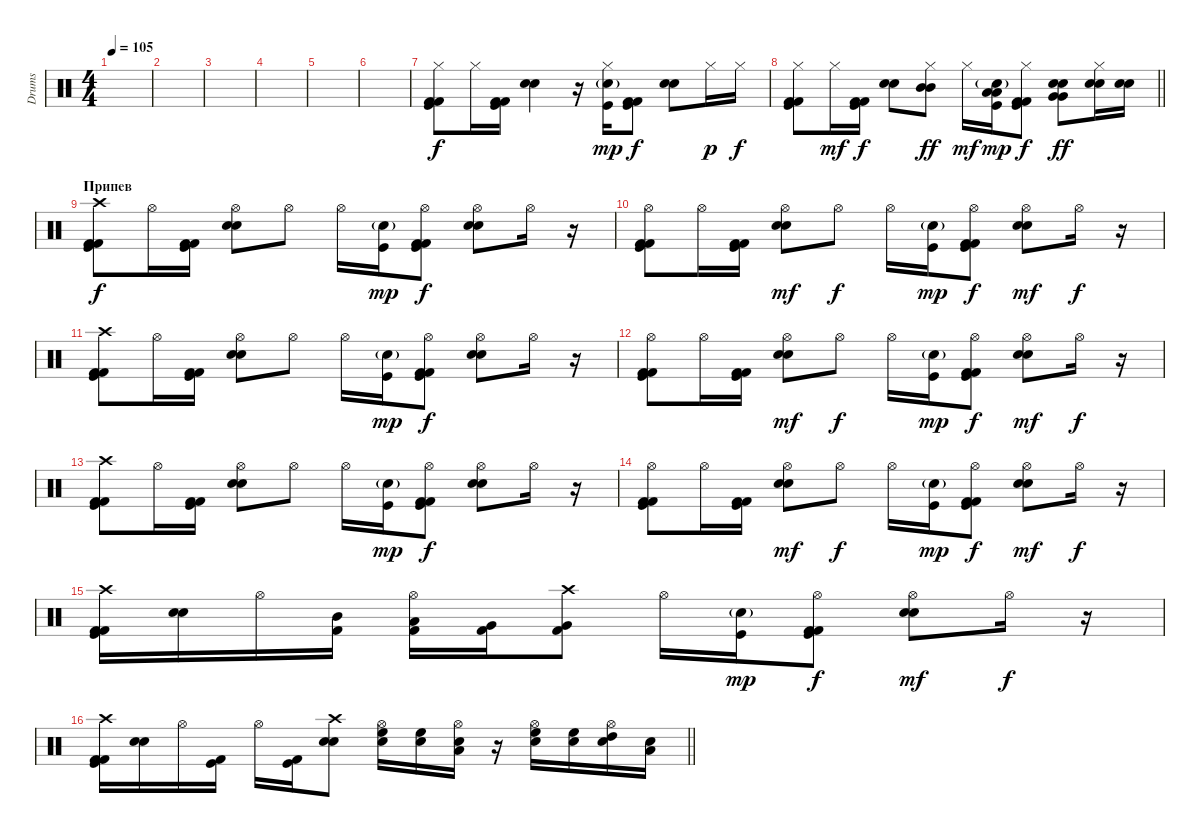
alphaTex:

\track ("Drums" "Drums") {instrument percussion}
\staff {score}
\articulation defaults
\ts (4 4)
\tempo 105
\clef neutral
\ks c
|
|
|
|
|
|
("Hi-Hat (closed)" "Kick (hit) 2" "Kick (hit) 2" "Kick (hit)").8{volume 11} "Hi-Hat (closed)".16 ("Kick (hit) 2" "Kick (hit) 2" "Kick (hit)").16 ("Electric Snare (hit)" "Snare (hit) 2").4 r.16 ("Hi-Hat (closed)" "Snare (hit) 2"{g} "Kick (hit)").16{dy mp} ("Kick (hit) 2" "Kick (hit) 2" "Kick (hit)").8{dy f} ("Electric Snare (hit)" "Snare (hit) 2").8 "Hi-Hat (closed)".16{dy p} "Hi-Hat (closed)".16{dy f} |
\barLineRight lightlight
("Hi-Hat (closed)" "Kick (hit) 2" "Kick (hit) 2" "Kick (hit)").8 "Hi-Hat (closed)".16{dy mf} ("Kick (hit) 2" "Kick (hit) 2" "Kick (hit)").16{dy f} ("Electric Snare (hit)" "Snare (hit) 2").8 ("Hi-Hat (closed)" "Mid Tom (hit)" "Mid Tom (hit)").8{dy ff} "Hi-Hat (closed)".16{dy mf} ("Low Tom (hit)" "Low Tom (hit)" "Snare (hit) 2"{g} "Kick (hit)").16{dy mp} ("Hi-Hat (closed)" "Kick (hit) 2" "Kick (hit) 2" "Kick (hit)").8{dy f} ("Very Low Tom (hit)" "Electric Snare (hit)" "Electric Snare (hit)" "Very Low Tom (hit)").8{dy ff} ("Hi-Hat (closed)" "Electric Snare (hit)" "Electric Snare (hit)").16 ("Electric Snare (hit)" "Electric Snare (hit)").16 |
\section ("" "Припев")
("Crash high (hit)" "Kick (hit) 2" "Kick (hit) 2" "Kick (hit)").8{dy f volume 13} "Hi-Hat (open)".16 ("Kick (hit) 2" "Kick (hit) 2" "Kick (hit)").16 ("Hi-Hat (open)" "Electric Snare (hit)" "Snare (hit) 2").8 "Hi-Hat (open)".8 "Hi-Hat (open)".16 ("Snare (hit) 2"{g} "Kick (hit)").16{dy mp} ("Hi-Hat (open)" "Kick (hit) 2" "Kick (hit) 2" "Kick (hit)").8{dy f} ("Hi-Hat (open)" "Electric Snare (hit)" "Snare (hit) 2").8 "Hi-Hat (open)".16 r.16 |
("Hi-Hat (open)" "Kick (hit) 2" "Kick (hit) 2" "Kick (hit)").8 "Hi-Hat (open)".16 ("Kick (hit) 2" "Kick (hit) 2" "Kick (hit)").16 ("Hi-Hat (open)" "Electric Snare (hit)" "Snare (hit) 2").8{dy mf} "Hi-Hat (open)".8{dy f} "Hi-Hat (open)".16 ("Snare (hit) 2"{g} "Kick (hit)").16{dy mp} ("Hi-Hat (open)" "Kick (hit) 2" "Kick (hit) 2" "Kick (hit)").8{dy f} ("Hi-Hat (open)" "Electric Snare (hit)" "Snare (hit) 2").8{dy mf} "Hi-Hat (open)".16{dy f} r.16 |
("Crash high (hit)" "Kick (hit) 2" "Kick (hit) 2" "Kick (hit)").8 "Hi-Hat (open)".16 ("Kick (hit) 2" "Kick (hit) 2" "Kick (hit)").16 ("Hi-Hat (open)" "Electric Snare (hit)" "Snare (hit) 2").8 "Hi-Hat (open)".8 "Hi-Hat (open)".16 ("Snare (hit) 2"{g} "Kick (hit)").16{dy mp} ("Hi-Hat (open)" "Kick (hit) 2" "Kick (hit) 2" "Kick (hit)").8{dy f} ("Hi-Hat (open)" "Electric Snare (hit)" "Snare (hit) 2").8 "Hi-Hat (open)".16 r.16 |
("Hi-Hat (open)" "Kick (hit) 2" "Kick (hit) 2" "Kick (hit)").8 "Hi-Hat (open)".16 ("Kick (hit) 2" "Kick (hit) 2" "Kick (hit)").16 ("Hi-Hat (open)" "Electric Snare (hit)" "Snare (hit) 2").8{dy mf} "Hi-Hat (open)".8{dy f} "Hi-Hat (open)".16 ("Snare (hit) 2"{g} "Kick (hit)").16{dy mp} ("Hi-Hat (open)" "Kick (hit) 2" "Kick (hit) 2" "Kick (hit)").8{dy f} ("Hi-Hat (open)" "Electric Snare (hit)" "Snare (hit) 2").8{dy mf} "Hi-Hat (open)".16{dy f} r.16 |
("Crash high (hit)" "Kick (hit) 2" "Kick (hit) 2" "Kick (hit)").8 "Hi-Hat (open)".16 ("Kick (hit) 2" "Kick (hit) 2" "Kick (hit)").16 ("Hi-Hat (open)" "Electric Snare (hit)" "Snare (hit) 2").8 "Hi-Hat (open)".8 "Hi-Hat (open)".16 ("Snare (hit) 2"{g} "Kick (hit)").16{dy mp} ("Hi-Hat (open)" "Kick (hit) 2" "Kick (hit) 2" "Kick (hit)").8{dy f} ("Hi-Hat (open)" "Electric Snare (hit)" "Snare (hit) 2").8 "Hi-Hat (open)".16 r.16 |
("Hi-Hat (open)" "Kick (hit) 2" "Kick (hit) 2" "Kick (hit)").8 "Hi-Hat (open)".16 ("Kick (hit) 2" "Kick (hit) 2" "Kick (hit)").16 ("Hi-Hat (open)" "Electric Snare (hit)" "Snare (hit) 2").8{dy mf} "Hi-Hat (open)".8{dy f} "Hi-Hat (open)".16 ("Snare (hit) 2"{g} "Kick (hit)").16{dy mp} ("Hi-Hat (open)" "Kick (hit) 2" "Kick (hit) 2" "Kick (hit)").8{dy f} ("Hi-Hat (open)" "Electric Snare (hit)" "Snare (hit) 2").8{dy mf} "Hi-Hat (open)".16{dy f} r.16 |
("Crash high (hit)" "Kick (hit) 2" "Kick (hit) 2" "Kick (hit)").16 ("Electric Snare (hit)" "Snare (hit) 2").16 "Hi-Hat (open)".16 ("Mid Tom (hit)" "Kick (hit) 2").16 ("Hi-Hat (open)" "Low Tom (hit)" "Kick (hit) 2").16 ("Very Low Tom (hit)" "Kick (hit) 2").16 ("Crash high (hit)" "Very Low Tom (hit)" "Kick (hit) 2").8 "Hi-Hat (open)".16 ("Snare (hit) 2"{g} "Kick (hit)").16{dy mp} ("Hi-Hat (open)" "Kick (hit) 2" "Kick (hit) 2" "Kick (hit)").8{dy f} ("Hi-Hat (open)" "Electric Snare (hit)" "Snare (hit) 2").8{dy mf} "Hi-Hat (open)".16{dy f} r.16 |
\barLineRight lightlight
("Crash high (hit)" "Kick (hit) 2" "Kick (hit) 2" "Kick (hit)").16 ("Electric Snare (hit)" "Snare (hit) 2").16 "Hi-Hat (open)".16 ("Kick (hit) 2" "Kick (hit)").16 "Hi-Hat (open)".16 ("Kick (hit) 2" "Kick (hit)").16 ("Crash high (hit)" "Electric Snare (hit)" "Snare (hit) 2").8 ("Hi-Hat (open)" "Electric Snare (hit)" "High Floor Tom (hit)").16 ("Electric Snare (hit)" "High Floor Tom (hit)").16 ("Hi-Hat (open)" "Electric Snare (hit)" "Low Tom (hit)").16 r.16 ("Hi-Hat (open)" "Electric Snare (hit)" "High Floor Tom (hit)").16 ("Electric Snare (hit)" "High Floor Tom (hit)").16 ("Hi-Hat (open)" "Electric Snare (hit)" "High Tom (hit)").16 ("Electric Snare (hit)" "Low Tom (hit)").16
